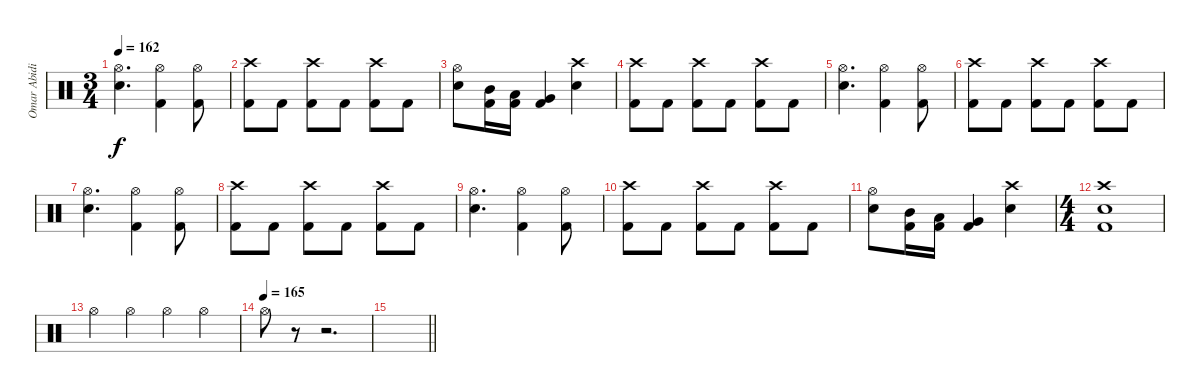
\track ("Omar Abidi" "Omar Abidi") {instrument percussion}
\staff {score}
\articulation defaults
\ts (3 4)
\tempo 162
\clef neutral
\ks c
("Hi-Hat (open)" "Electric Snare (hit)").4{d dy f} ("Hi-Hat (open)" "Kick (hit) 2").4 ("Hi-Hat (open)" "Kick (hit) 2").8 |
("Crash high (hit)" "Kick (hit) 2").8 "Kick (hit) 2".8 ("Crash high (hit)" "Kick (hit) 2").8 "Kick (hit) 2".8 ("Crash high (hit)" "Kick (hit) 2").8 "Kick (hit) 2".8 |
("Hi-Hat (open)" "Electric Snare (hit)").8 ("Mid Tom (hit)" "Kick (hit) 2").16 ("Low Tom (hit)" "Kick (hit) 2").16 ("Very Low Tom (hit)" "Kick (hit) 2").4 ("Crash high (hit)" "Electric Snare (hit)").4 |
("Crash high (hit)" "Kick (hit) 2").8 "Kick (hit) 2".8 ("Crash high (hit)" "Kick (hit) 2").8 "Kick (hit) 2".8 ("Crash high (hit)" "Kick (hit) 2").8 "Kick (hit) 2".8 |
("Hi-Hat (open)" "Electric Snare (hit)").4{d} ("Hi-Hat (open)" "Kick (hit) 2").4 ("Hi-Hat (open)" "Kick (hit) 2").8 |
("Crash high (hit)" "Kick (hit) 2").8 "Kick (hit) 2".8 ("Crash high (hit)" "Kick (hit) 2").8 "Kick (hit) 2".8 ("Crash high (hit)" "Kick (hit) 2").8 "Kick (hit) 2".8 |
("Hi-Hat (open)" "Electric Snare (hit)").4{d} ("Hi-Hat (open)" "Kick (hit) 2").4 ("Hi-Hat (open)" "Kick (hit) 2").8 |
("Crash high (hit)" "Kick (hit) 2").8 "Kick (hit) 2".8 ("Crash high (hit)" "Kick (hit) 2").8 "Kick (hit) 2".8 ("Crash high (hit)" "Kick (hit) 2").8 "Kick (hit) 2".8 |
("Hi-Hat (open)" "Electric Snare (hit)").4{d} ("Hi-Hat (open)" "Kick (hit) 2").4 ("Hi-Hat (open)" "Kick (hit) 2").8 |
("Crash high (hit)" "Kick (hit) 2").8 "Kick (hit) 2".8 ("Crash high (hit)" "Kick (hit) 2").8 "Kick (hit) 2".8 ("Crash high (hit)" "Kick (hit) 2").8 "Kick (hit) 2".8 |
("Hi-Hat (open)" "Electric Snare (hit)").8 ("Mid Tom (hit)" "Kick (hit) 2").16 ("Low Tom (hit)" "Kick (hit) 2").16 ("Very Low Tom (hit)" "Kick (hit) 2").4 ("Crash high (hit)" "Electric Snare (hit)").4 |
\ts (4 4)
("Crash high (hit)" "Electric Snare (hit)" "Kick (hit) 2").1 |
"Hi-Hat (open)".4 "Hi-Hat (open)".4 "Hi-Hat (open)".4 "Hi-Hat (open)".4 |
\tempo (165)
"Hi-Hat (open)".8 r.8 r.2{d} |
\barLineRight lightlight
